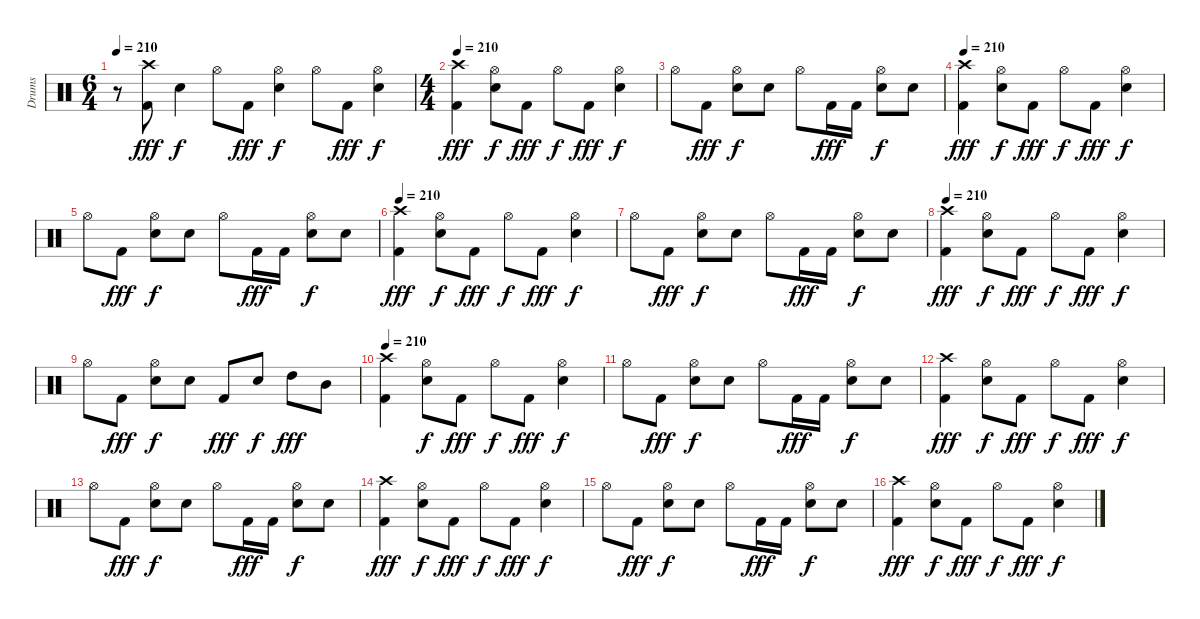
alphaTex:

\track ("Drums" "Drums") {instrument percussion}
\staff {score}
\articulation defaults
\ts (6 4)
\tempo 210
\clef neutral
\ks c
r.8{dy f} ("Crash high (hit)" "Kick (hit) 2").8{dy fff} "Snare (hit) 2".4{dy f} "Hi-Hat (open)".8 "Kick (hit) 2".8{dy fff} ("Hi-Hat (open)" "Snare (hit) 2").4{dy f} "Hi-Hat (open)".8 "Kick (hit) 2".8{dy fff} ("Hi-Hat (open)" "Snare (hit) 2").4{dy f} |
\ts (4 4)
\section ("" "")
\tempo 210
("Crash high (hit)" "Kick (hit) 2").4{dy fff} ("Hi-Hat (open)" "Snare (hit) 2").8{dy f} "Kick (hit) 2".8{dy fff} "Hi-Hat (open)".8{dy f} "Kick (hit) 2".8{dy fff} ("Hi-Hat (open)" "Snare (hit) 2").4{dy f} |
"Hi-Hat (open)".8 "Kick (hit) 2".8{dy fff} ("Hi-Hat (open)" "Snare (hit) 2").8{dy f} "Snare (hit) 2".8 "Hi-Hat (open)".8 "Kick (hit) 2".16{dy fff} "Kick (hit) 2".16 ("Hi-Hat (open)" "Snare (hit) 2").8{dy f} "Snare (hit) 2".8 |
\tempo 210
("Crash high (hit)" "Kick (hit) 2").4{dy fff} ("Hi-Hat (open)" "Snare (hit) 2").8{dy f} "Kick (hit) 2".8{dy fff} "Hi-Hat (open)".8{dy f} "Kick (hit) 2".8{dy fff} ("Hi-Hat (open)" "Snare (hit) 2").4{dy f} |
"Hi-Hat (open)".8 "Kick (hit) 2".8{dy fff} ("Hi-Hat (open)" "Snare (hit) 2").8{dy f} "Snare (hit) 2".8 "Hi-Hat (open)".8 "Kick (hit) 2".16{dy fff} "Kick (hit) 2".16 ("Hi-Hat (open)" "Snare (hit) 2").8{dy f} "Snare (hit) 2".8 |
\tempo 210
("Crash high (hit)" "Kick (hit) 2").4{dy fff} ("Hi-Hat (open)" "Snare (hit) 2").8{dy f} "Kick (hit) 2".8{dy fff} "Hi-Hat (open)".8{dy f} "Kick (hit) 2".8{dy fff} ("Hi-Hat (open)" "Snare (hit) 2").4{dy f} |
"Hi-Hat (open)".8 "Kick (hit) 2".8{dy fff} ("Hi-Hat (open)" "Snare (hit) 2").8{dy f} "Snare (hit) 2".8 "Hi-Hat (open)".8 "Kick (hit) 2".16{dy fff} "Kick (hit) 2".16 ("Hi-Hat (open)" "Snare (hit) 2").8{dy f} "Snare (hit) 2".8 |
\tempo 210
("Crash high (hit)" "Kick (hit) 2").4{dy fff} ("Hi-Hat (open)" "Snare (hit) 2").8{dy f} "Kick (hit) 2".8{dy fff} "Hi-Hat (open)".8{dy f} "Kick (hit) 2".8{dy fff} ("Hi-Hat (open)" "Snare (hit) 2").4{dy f} |
"Hi-Hat (open)".8 "Kick (hit) 2".8{dy fff} ("Hi-Hat (open)" "Snare (hit) 2").8{dy f} "Snare (hit) 2".8 "Kick (hit) 2".8{dy fff} "Snare (hit) 2".8{dy f} "High Tom (hit)".8{dy fff} "Mid Tom (hit)".8 |
\tempo 210
("Crash high (hit)" "Kick (hit) 2").4 ("Hi-Hat (open)" "Snare (hit) 2").8{dy f} "Kick (hit) 2".8{dy fff} "Hi-Hat (open)".8{dy f} "Kick (hit) 2".8{dy fff} ("Hi-Hat (open)" "Snare (hit) 2").4{dy f} |
"Hi-Hat (open)".8 "Kick (hit) 2".8{dy fff} ("Hi-Hat (open)" "Snare (hit) 2").8{dy f} "Snare (hit) 2".8 "Hi-Hat (open)".8 "Kick (hit) 2".16{dy fff} "Kick (hit) 2".16 ("Hi-Hat (open)" "Snare (hit) 2").8{dy f} "Snare (hit) 2".8 |
("Crash high (hit)" "Kick (hit) 2").4{dy fff} ("Hi-Hat (open)" "Snare (hit) 2").8{dy f} "Kick (hit) 2".8{dy fff} "Hi-Hat (open)".8{dy f} "Kick (hit) 2".8{dy fff} ("Hi-Hat (open)" "Snare (hit) 2").4{dy f} |
"Hi-Hat (open)".8 "Kick (hit) 2".8{dy fff} ("Hi-Hat (open)" "Snare (hit) 2").8{dy f} "Snare (hit) 2".8 "Hi-Hat (open)".8 "Kick (hit) 2".16{dy fff} "Kick (hit) 2".16 ("Hi-Hat (open)" "Snare (hit) 2").8{dy f} "Snare (hit) 2".8 |
("Crash high (hit)" "Kick (hit) 2").4{dy fff} ("Hi-Hat (open)" "Snare (hit) 2").8{dy f} "Kick (hit) 2".8{dy fff} "Hi-Hat (open)".8{dy f} "Kick (hit) 2".8{dy fff} ("Hi-Hat (open)" "Snare (hit) 2").4{dy f} |
"Hi-Hat (open)".8 "Kick (hit) 2".8{dy fff} ("Hi-Hat (open)" "Snare (hit) 2").8{dy f} "Snare (hit) 2".8 "Hi-Hat (open)".8 "Kick (hit) 2".16{dy fff} "Kick (hit) 2".16 ("Hi-Hat (open)" "Snare (hit) 2").8{dy f} "Snare (hit) 2".8 |
("Crash high (hit)" "Kick (hit) 2").4{dy fff} ("Hi-Hat (open)" "Snare (hit) 2").8{dy f} "Kick (hit) 2".8{dy fff} "Hi-Hat (open)".8{dy f} "Kick (hit) 2".8{dy fff} ("Hi-Hat (open)" "Snare (hit) 2").4{dy f}
